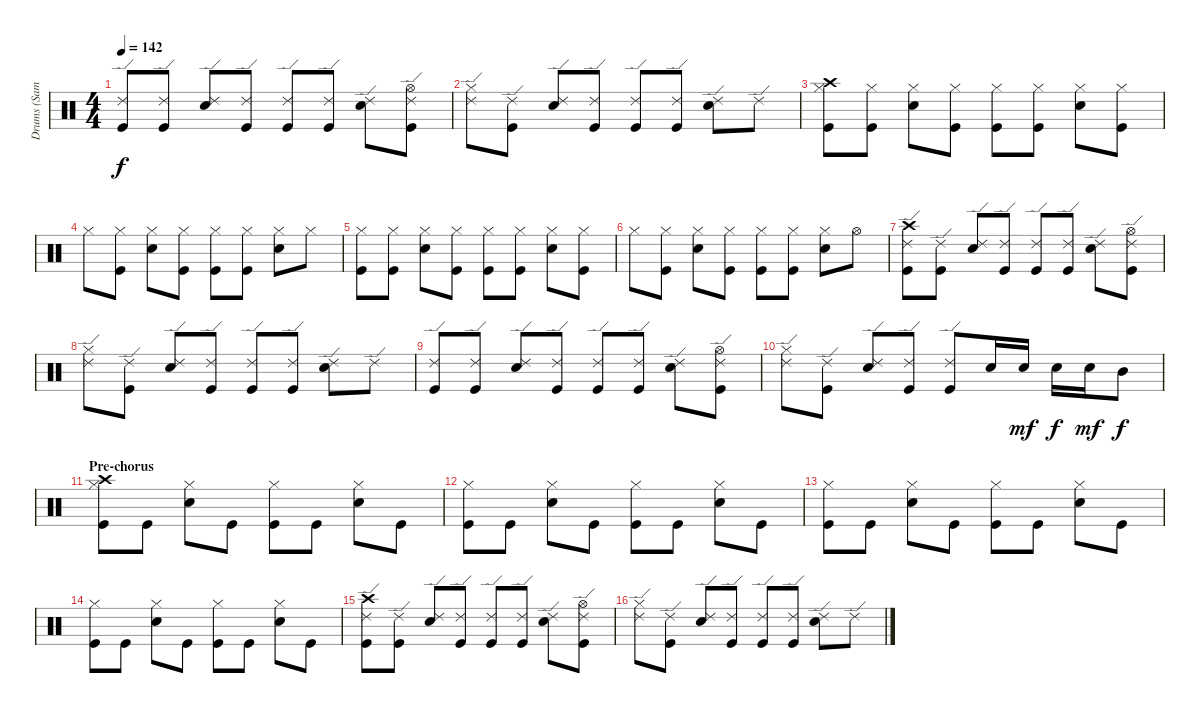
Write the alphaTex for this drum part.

\track ("Drums (Sam)" "Drums (Sam") {instrument percussion}
\staff {score}
\articulation defaults
\ts (4 4)
\tempo 142
\clef neutral
\ks c
("Ride (edge) 2" "Kick (hit)").8{dy f} ("Ride (edge) 2" "Kick (hit)").8 ("Ride (edge) 2" "Snare (hit) 2").8 ("Ride (edge) 2" "Kick (hit)").8 ("Ride (edge) 2" "Kick (hit)").8 ("Ride (edge) 2" "Kick (hit)").8 ("Ride (edge) 2" "Snare (hit) 2").8 ("Hi-Hat (open)" "Ride (edge) 2" "Kick (hit)").8 |
("Hi-Hat (closed)" "Ride (edge) 2").8 ("Ride (edge) 2" "Kick (hit)").8 ("Ride (edge) 2" "Snare (hit) 2").8 ("Ride (edge) 2" "Kick (hit)").8 ("Ride (edge) 2" "Kick (hit)").8 ("Ride (edge) 2" "Kick (hit)").8 ("Ride (edge) 2" "Snare (hit) 2").8 "Ride (edge) 2".8 |
("Crash high (hit)" "Hi-Hat (closed)" "Kick (hit)").8 ("Hi-Hat (closed)" "Kick (hit)").8 ("Hi-Hat (closed)" "Snare (hit) 2").8 ("Hi-Hat (closed)" "Kick (hit)").8 ("Hi-Hat (closed)" "Kick (hit)").8 ("Hi-Hat (closed)" "Kick (hit)").8 ("Hi-Hat (closed)" "Snare (hit) 2").8 ("Hi-Hat (closed)" "Kick (hit)").8 |
"Hi-Hat (closed)".8 ("Hi-Hat (closed)" "Kick (hit)").8 ("Hi-Hat (closed)" "Snare (hit) 2").8 ("Hi-Hat (closed)" "Kick (hit)").8 ("Hi-Hat (closed)" "Kick (hit)").8 ("Hi-Hat (closed)" "Kick (hit)").8 ("Hi-Hat (closed)" "Snare (hit) 2").8 "Hi-Hat (closed)".8 |
("Hi-Hat (closed)" "Kick (hit)").8 ("Hi-Hat (closed)" "Kick (hit)").8 ("Hi-Hat (closed)" "Snare (hit) 2").8 ("Hi-Hat (closed)" "Kick (hit)").8 ("Hi-Hat (closed)" "Kick (hit)").8 ("Hi-Hat (closed)" "Kick (hit)").8 ("Hi-Hat (closed)" "Snare (hit) 2").8 ("Hi-Hat (closed)" "Kick (hit)").8 |
"Hi-Hat (closed)".8 ("Hi-Hat (closed)" "Kick (hit)").8 ("Hi-Hat (closed)" "Snare (hit) 2").8 ("Hi-Hat (closed)" "Kick (hit)").8 ("Hi-Hat (closed)" "Kick (hit)").8 ("Hi-Hat (closed)" "Kick (hit)").8 ("Hi-Hat (closed)" "Snare (hit) 2").8 "Hi-Hat (open)".8 |
("Crash high (hit)" "Ride (edge) 2" "Kick (hit)").8 ("Ride (edge) 2" "Kick (hit)").8 ("Ride (edge) 2" "Snare (hit) 2").8 ("Ride (edge) 2" "Kick (hit)").8 ("Ride (edge) 2" "Kick (hit)").8 ("Ride (edge) 2" "Kick (hit)").8 ("Ride (edge) 2" "Snare (hit) 2").8 ("Hi-Hat (open)" "Ride (edge) 2" "Kick (hit)").8 |
("Hi-Hat (closed)" "Ride (edge) 2").8 ("Ride (edge) 2" "Kick (hit)").8 ("Ride (edge) 2" "Snare (hit) 2").8 ("Ride (edge) 2" "Kick (hit)").8 ("Ride (edge) 2" "Kick (hit)").8 ("Ride (edge) 2" "Kick (hit)").8 ("Ride (edge) 2" "Snare (hit) 2").8 "Ride (edge) 2".8 |
("Ride (edge) 2" "Kick (hit)").8 ("Ride (edge) 2" "Kick (hit)").8 ("Ride (edge) 2" "Snare (hit) 2").8 ("Ride (edge) 2" "Kick (hit)").8 ("Ride (edge) 2" "Kick (hit)").8 ("Ride (edge) 2" "Kick (hit)").8 ("Ride (edge) 2" "Snare (hit) 2").8 ("Hi-Hat (open)" "Ride (edge) 2" "Kick (hit)").8 |
("Hi-Hat (closed)" "Ride (edge) 2").8 ("Ride (edge) 2" "Kick (hit)").8 ("Ride (edge) 2" "Snare (hit) 2").8 ("Ride (edge) 2" "Kick (hit)").8 ("Ride (edge) 2" "Kick (hit)").8 "Snare (hit) 2".16 "Snare (hit) 2".16{dy mf} "Snare (hit) 2".16{dy f} "Snare (hit) 2".16{dy mf} "Mid Tom (hit)".8{dy f} |
\section ("" "Pre-chorus")
("Crash high (hit)" "Hi-Hat (closed)" "Kick (hit)").8 "Kick (hit)".8 ("Hi-Hat (closed)" "Snare (hit) 2").8 "Kick (hit)".8 ("Hi-Hat (closed)" "Kick (hit)").8 "Kick (hit)".8 ("Hi-Hat (closed)" "Snare (hit) 2").8 "Kick (hit)".8 |
("Hi-Hat (closed)" "Kick (hit)").8 "Kick (hit)".8 ("Hi-Hat (closed)" "Snare (hit) 2").8 "Kick (hit)".8 ("Hi-Hat (closed)" "Kick (hit)").8 "Kick (hit)".8 ("Hi-Hat (closed)" "Snare (hit) 2").8 "Kick (hit)".8 |
("Hi-Hat (closed)" "Kick (hit)").8 "Kick (hit)".8 ("Hi-Hat (closed)" "Snare (hit) 2").8 "Kick (hit)".8 ("Hi-Hat (closed)" "Kick (hit)").8 "Kick (hit)".8 ("Hi-Hat (closed)" "Snare (hit) 2").8 "Kick (hit)".8 |
("Hi-Hat (closed)" "Kick (hit)").8 "Kick (hit)".8 ("Hi-Hat (closed)" "Snare (hit) 2").8 "Kick (hit)".8 ("Hi-Hat (closed)" "Kick (hit)").8 "Kick (hit)".8 ("Hi-Hat (closed)" "Snare (hit) 2").8 "Kick (hit)".8 |
("Crash high (hit)" "Ride (edge) 2" "Kick (hit)").8 ("Ride (edge) 2" "Kick (hit)").8 ("Ride (edge) 2" "Snare (hit) 2").8 ("Ride (edge) 2" "Kick (hit)").8 ("Ride (edge) 2" "Kick (hit)").8 ("Ride (edge) 2" "Kick (hit)").8 ("Ride (edge) 2" "Snare (hit) 2").8 ("Hi-Hat (open)" "Ride (edge) 2" "Kick (hit)").8 |
("Hi-Hat (closed)" "Ride (edge) 2").8 ("Ride (edge) 2" "Kick (hit)").8 ("Ride (edge) 2" "Snare (hit) 2").8 ("Ride (edge) 2" "Kick (hit)").8 ("Ride (edge) 2" "Kick (hit)").8 ("Ride (edge) 2" "Kick (hit)").8 ("Ride (edge) 2" "Snare (hit) 2").8 "Ride (edge) 2".8
